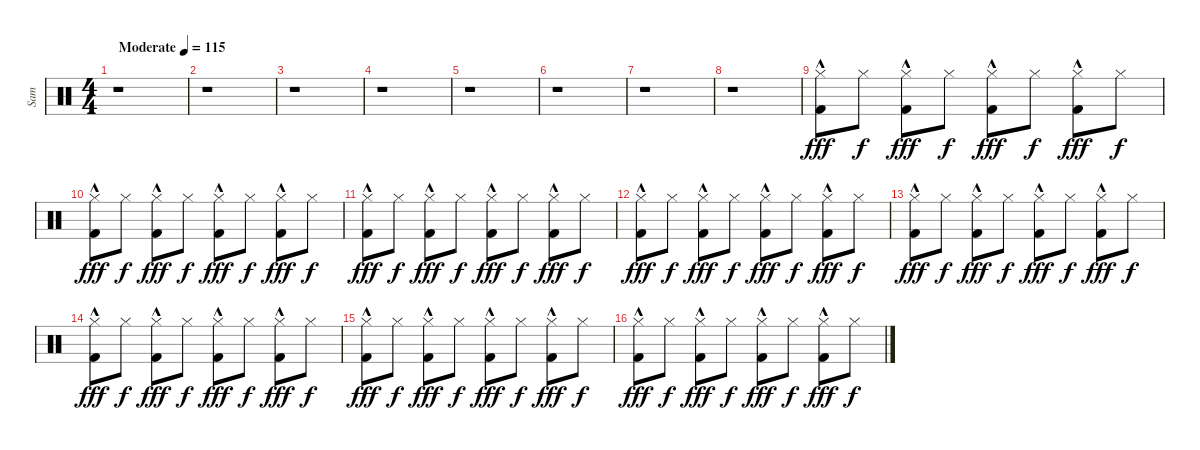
\track ("Sam" "Sam") {instrument percussion}
\staff {score}
\articulation defaults
\ts (4 4)
\tempo (115 "Moderate")
\clef neutral
\ks c
r.1{dy fff} |
r.1 |
r.1 |
r.1 |
r.1 |
r.1 |
r.1 |
r.1 |
("Hi-Hat (closed)" "Kick (hit) 2"{hac}).8 "Hi-Hat (closed)".8{dy f} ("Hi-Hat (closed)" "Kick (hit) 2"{hac}).8{dy fff} "Hi-Hat (closed)".8{dy f} ("Hi-Hat (closed)" "Kick (hit) 2"{hac}).8{dy fff} "Hi-Hat (closed)".8{dy f} ("Hi-Hat (closed)" "Kick (hit) 2"{hac}).8{dy fff} "Hi-Hat (closed)".8{dy f} |
("Hi-Hat (closed)" "Kick (hit) 2"{hac}).8{dy fff} "Hi-Hat (closed)".8{dy f} ("Hi-Hat (closed)" "Kick (hit) 2"{hac}).8{dy fff} "Hi-Hat (closed)".8{dy f} ("Hi-Hat (closed)" "Kick (hit) 2"{hac}).8{dy fff} "Hi-Hat (closed)".8{dy f} ("Hi-Hat (closed)" "Kick (hit) 2"{hac}).8{dy fff} "Hi-Hat (closed)".8{dy f} |
("Hi-Hat (closed)" "Kick (hit) 2"{hac}).8{dy fff} "Hi-Hat (closed)".8{dy f} ("Hi-Hat (closed)" "Kick (hit) 2"{hac}).8{dy fff} "Hi-Hat (closed)".8{dy f} ("Hi-Hat (closed)" "Kick (hit) 2"{hac}).8{dy fff} "Hi-Hat (closed)".8{dy f} ("Hi-Hat (closed)" "Kick (hit) 2"{hac}).8{dy fff} "Hi-Hat (closed)".8{dy f} |
("Hi-Hat (closed)" "Kick (hit) 2"{hac}).8{dy fff} "Hi-Hat (closed)".8{dy f} ("Hi-Hat (closed)" "Kick (hit) 2"{hac}).8{dy fff} "Hi-Hat (closed)".8{dy f} ("Hi-Hat (closed)" "Kick (hit) 2"{hac}).8{dy fff} "Hi-Hat (closed)".8{dy f} ("Hi-Hat (closed)" "Kick (hit) 2"{hac}).8{dy fff} "Hi-Hat (closed)".8{dy f} |
("Hi-Hat (closed)" "Kick (hit) 2"{hac}).8{dy fff} "Hi-Hat (closed)".8{dy f} ("Hi-Hat (closed)" "Kick (hit) 2"{hac}).8{dy fff} "Hi-Hat (closed)".8{dy f} ("Hi-Hat (closed)" "Kick (hit) 2"{hac}).8{dy fff} "Hi-Hat (closed)".8{dy f} ("Hi-Hat (closed)" "Kick (hit) 2"{hac}).8{dy fff} "Hi-Hat (closed)".8{dy f} |
("Hi-Hat (closed)" "Kick (hit) 2"{hac}).8{dy fff} "Hi-Hat (closed)".8{dy f} ("Hi-Hat (closed)" "Kick (hit) 2"{hac}).8{dy fff} "Hi-Hat (closed)".8{dy f} ("Hi-Hat (closed)" "Kick (hit) 2"{hac}).8{dy fff} "Hi-Hat (closed)".8{dy f} ("Hi-Hat (closed)" "Kick (hit) 2"{hac}).8{dy fff} "Hi-Hat (closed)".8{dy f} |
("Hi-Hat (closed)" "Kick (hit) 2"{hac}).8{dy fff} "Hi-Hat (closed)".8{dy f} ("Hi-Hat (closed)" "Kick (hit) 2"{hac}).8{dy fff} "Hi-Hat (closed)".8{dy f} ("Hi-Hat (closed)" "Kick (hit) 2"{hac}).8{dy fff} "Hi-Hat (closed)".8{dy f} ("Hi-Hat (closed)" "Kick (hit) 2"{hac}).8{dy fff} "Hi-Hat (closed)".8{dy f} |
("Hi-Hat (closed)" "Kick (hit) 2"{hac}).8{dy fff} "Hi-Hat (closed)".8{dy f} ("Hi-Hat (closed)" "Kick (hit) 2"{hac}).8{dy fff} "Hi-Hat (closed)".8{dy f} ("Hi-Hat (closed)" "Kick (hit) 2"{hac}).8{dy fff} "Hi-Hat (closed)".8{dy f} ("Hi-Hat (closed)" "Kick (hit) 2"{hac}).8{dy fff} "Hi-Hat (closed)".8{dy f}
